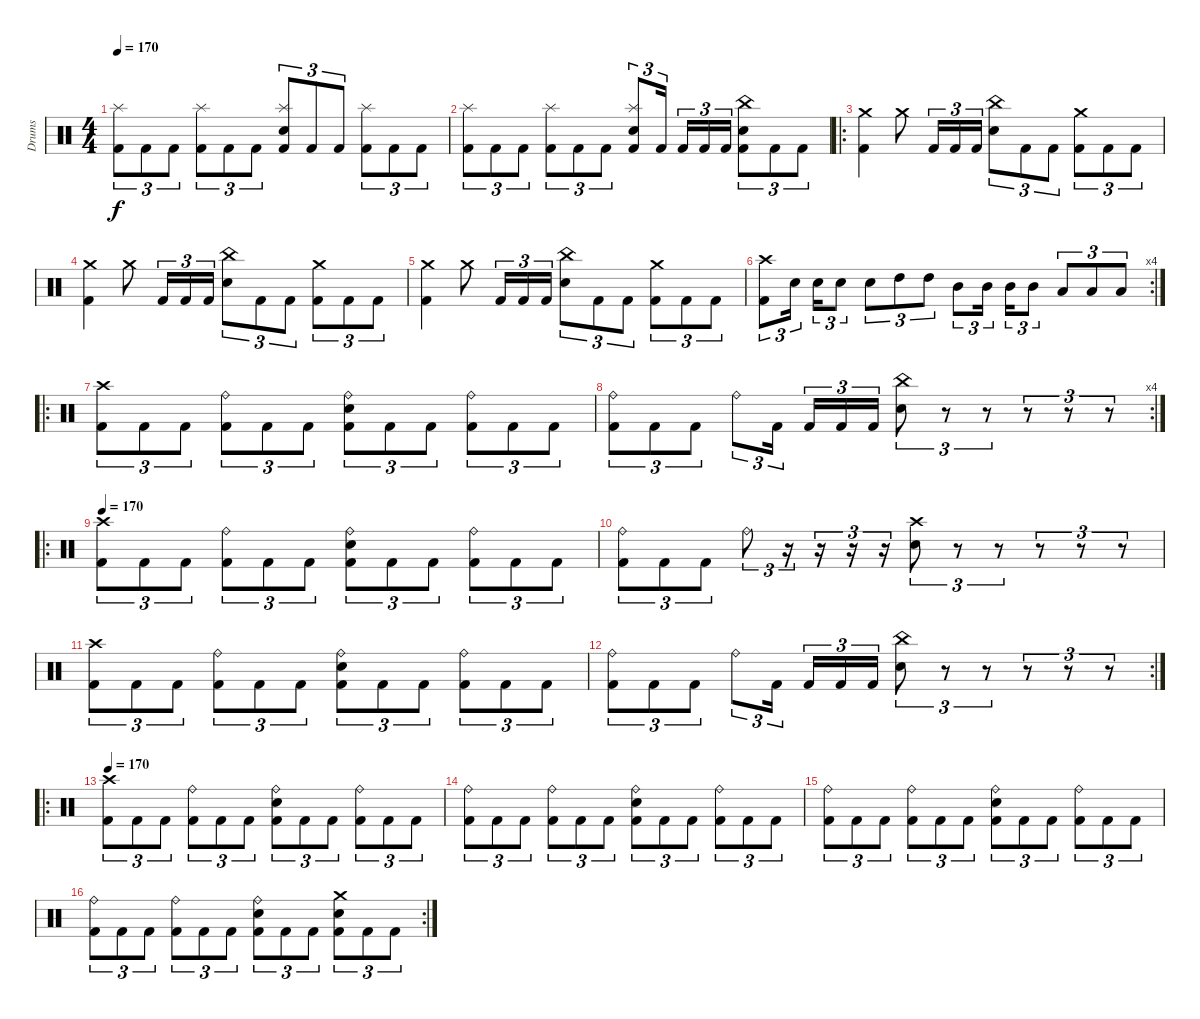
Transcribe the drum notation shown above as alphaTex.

\track ("Drums" "Drums") {instrument percussion}
\staff {score}
\articulation defaults
\ts (4 4)
\tempo 170
\clef neutral
\ks c
("Kick (hit) 2" "Splash (hit)").8{tu (3 2) dy f} "Kick (hit) 2".8{tu (3 2)} "Kick (hit) 2".8{tu (3 2)} ("Kick (hit) 2" "Splash (hit)").8{tu (3 2)} "Kick (hit) 2".8{tu (3 2)} "Kick (hit) 2".8{tu (3 2)} ("Kick (hit) 2" "Electric Snare (hit)" "Splash (hit)").8{tu (3 2)} "Kick (hit) 2".8{tu (3 2)} "Kick (hit) 2".8{tu (3 2)} ("Kick (hit) 2" "Splash (hit)").8{tu (3 2)} "Kick (hit) 2".8{tu (3 2)} "Kick (hit) 2".8{tu (3 2)} |
("Kick (hit) 2" "Splash (hit)").8{tu (3 2)} "Kick (hit) 2".8{tu (3 2)} "Kick (hit) 2".8{tu (3 2)} ("Kick (hit) 2" "Splash (hit)").8{tu (3 2)} "Kick (hit) 2".8{tu (3 2)} "Kick (hit) 2".8{tu (3 2)} ("Kick (hit) 2" "Electric Snare (hit)" "Splash (hit)").8{tu (3 2)} "Kick (hit) 2".16{tu (3 2)} "Kick (hit) 2".16{tu (3 2)} "Kick (hit) 2".16{tu (3 2)} "Kick (hit) 2".16{tu (3 2)} ("Kick (hit) 2" "Electric Snare (hit)" "China (hit)").8{tu (3 2)} "Kick (hit) 2".8{tu (3 2)} "Kick (hit) 2".8{tu (3 2)} |
\ro
("Kick (hit) 2" "Crash medium (hit)").4 "Crash medium (hit)".8 "Kick (hit) 2".16{tu (3 2)} "Kick (hit) 2".16{tu (3 2)} "Kick (hit) 2".16{tu (3 2)} ("Electric Snare (hit)" "China (hit)").8{tu (3 2)} "Kick (hit) 2".8{tu (3 2)} "Kick (hit) 2".8{tu (3 2)} ("Kick (hit) 2" "Crash medium (hit)").8{tu (3 2)} "Kick (hit) 2".8{tu (3 2)} "Kick (hit) 2".8{tu (3 2)} |
("Kick (hit) 2" "Crash medium (hit)").4 "Crash medium (hit)".8 "Kick (hit) 2".16{tu (3 2)} "Kick (hit) 2".16{tu (3 2)} "Kick (hit) 2".16{tu (3 2)} ("Electric Snare (hit)" "China (hit)").8{tu (3 2)} "Kick (hit) 2".8{tu (3 2)} "Kick (hit) 2".8{tu (3 2)} ("Kick (hit) 2" "Crash medium (hit)").8{tu (3 2)} "Kick (hit) 2".8{tu (3 2)} "Kick (hit) 2".8{tu (3 2)} |
("Kick (hit) 2" "Crash medium (hit)").4 "Crash medium (hit)".8 "Kick (hit) 2".16{tu (3 2)} "Kick (hit) 2".16{tu (3 2)} "Kick (hit) 2".16{tu (3 2)} ("Electric Snare (hit)" "China (hit)").8{tu (3 2)} "Kick (hit) 2".8{tu (3 2)} "Kick (hit) 2".8{tu (3 2)} ("Kick (hit) 2" "Crash medium (hit)").8{tu (3 2)} "Kick (hit) 2".8{tu (3 2)} "Kick (hit) 2".8{tu (3 2)} |
\rc 4
("Kick (hit) 2" "Crash high (hit)").8{tu (3 2)} "Electric Snare (hit)".16{tu (3 2)} "Electric Snare (hit)".16{tu (3 2)} "Electric Snare (hit)".8{tu (3 2)} "Electric Snare (hit)".8{tu (3 2)} "High Tom (hit)".8{tu (3 2)} "High Tom (hit)".8{tu (3 2)} "Mid Tom (hit)".8{tu (3 2)} "Mid Tom (hit)".16{tu (3 2)} "Mid Tom (hit)".16{tu (3 2)} "Mid Tom (hit)".8{tu (3 2)} "Low Tom (hit)".8{tu (3 2)} "Low Tom (hit)".8{tu (3 2)} "Low Tom (hit)".8{tu (3 2)} |
\ro
("Kick (hit) 2" "Crash high (hit)").8{tu (3 2)} "Kick (hit) 2".8{tu (3 2)} "Kick (hit) 2".8{tu (3 2)} ("Kick (hit) 2" "Ride (bell)").8{tu (3 2)} "Kick (hit) 2".8{tu (3 2)} "Kick (hit) 2".8{tu (3 2)} ("Kick (hit) 2" "Electric Snare (hit)" "Ride (bell)").8{tu (3 2)} "Kick (hit) 2".8{tu (3 2)} "Kick (hit) 2".8{tu (3 2)} ("Kick (hit) 2" "Ride (bell)").8{tu (3 2)} "Kick (hit) 2".8{tu (3 2)} "Kick (hit) 2".8{tu (3 2)} |
\rc 4
("Kick (hit) 2" "Ride (bell)").8{tu (3 2)} "Kick (hit) 2".8{tu (3 2)} "Kick (hit) 2".8{tu (3 2)} "Ride (bell)".8{tu (3 2)} "Kick (hit) 2".16{tu (3 2)} "Kick (hit) 2".16{tu (3 2)} "Kick (hit) 2".16{tu (3 2)} "Kick (hit) 2".16{tu (3 2)} ("Electric Snare (hit)" "China (hit)").8{tu (3 2)} r.8{tu (3 2)} r.8{tu (3 2)} r.8{tu (3 2)} r.8{tu (3 2)} r.8{tu (3 2)} |
\ro
\tempo 170
("Kick (hit) 2" "Crash high (hit)").8{tu (3 2)} "Kick (hit) 2".8{tu (3 2)} "Kick (hit) 2".8{tu (3 2)} ("Kick (hit) 2" "Ride (bell)").8{tu (3 2)} "Kick (hit) 2".8{tu (3 2)} "Kick (hit) 2".8{tu (3 2)} ("Kick (hit) 2" "Electric Snare (hit)" "Ride (bell)").8{tu (3 2)} "Kick (hit) 2".8{tu (3 2)} "Kick (hit) 2".8{tu (3 2)} ("Kick (hit) 2" "Ride (bell)").8{tu (3 2)} "Kick (hit) 2".8{tu (3 2)} "Kick (hit) 2".8{tu (3 2)} |
("Kick (hit) 2" "Ride (bell)").8{tu (3 2)} "Kick (hit) 2".8{tu (3 2)} "Kick (hit) 2".8{tu (3 2)} "Ride (bell)".8{tu (3 2)} r.16{tu (3 2)} r.16{tu (3 2)} r.16{tu (3 2)} r.16{tu (3 2)} ("Electric Snare (hit)" "Crash high (hit)").8{tu (3 2)} r.8{tu (3 2)} r.8{tu (3 2)} r.8{tu (3 2)} r.8{tu (3 2)} r.8{tu (3 2)} |
("Kick (hit) 2" "Crash high (hit)").8{tu (3 2)} "Kick (hit) 2".8{tu (3 2)} "Kick (hit) 2".8{tu (3 2)} ("Kick (hit) 2" "Ride (bell)").8{tu (3 2)} "Kick (hit) 2".8{tu (3 2)} "Kick (hit) 2".8{tu (3 2)} ("Kick (hit) 2" "Electric Snare (hit)" "Ride (bell)").8{tu (3 2)} "Kick (hit) 2".8{tu (3 2)} "Kick (hit) 2".8{tu (3 2)} ("Kick (hit) 2" "Ride (bell)").8{tu (3 2)} "Kick (hit) 2".8{tu (3 2)} "Kick (hit) 2".8{tu (3 2)} |
\rc 2
("Kick (hit) 2" "Ride (bell)").8{tu (3 2)} "Kick (hit) 2".8{tu (3 2)} "Kick (hit) 2".8{tu (3 2)} "Ride (bell)".8{tu (3 2)} "Kick (hit) 2".16{tu (3 2)} "Kick (hit) 2".16{tu (3 2)} "Kick (hit) 2".16{tu (3 2)} "Kick (hit) 2".16{tu (3 2)} ("Electric Snare (hit)" "China (hit)").8{tu (3 2)} r.8{tu (3 2)} r.8{tu (3 2)} r.8{tu (3 2)} r.8{tu (3 2)} r.8{tu (3 2)} |
\ro
\tempo 170
("Kick (hit) 2" "Crash high (hit)").8{tu (3 2)} "Kick (hit) 2".8{tu (3 2)} "Kick (hit) 2".8{tu (3 2)} ("Kick (hit) 2" "Ride (bell)").8{tu (3 2)} "Kick (hit) 2".8{tu (3 2)} "Kick (hit) 2".8{tu (3 2)} ("Kick (hit) 2" "Electric Snare (hit)" "Ride (bell)").8{tu (3 2)} "Kick (hit) 2".8{tu (3 2)} "Kick (hit) 2".8{tu (3 2)} ("Kick (hit) 2" "Ride (bell)").8{tu (3 2)} "Kick (hit) 2".8{tu (3 2)} "Kick (hit) 2".8{tu (3 2)} |
("Kick (hit) 2" "Ride (bell)").8{tu (3 2)} "Kick (hit) 2".8{tu (3 2)} "Kick (hit) 2".8{tu (3 2)} ("Kick (hit) 2" "Ride (bell)").8{tu (3 2)} "Kick (hit) 2".8{tu (3 2)} "Kick (hit) 2".8{tu (3 2)} ("Kick (hit) 2" "Electric Snare (hit)" "Ride (bell)").8{tu (3 2)} "Kick (hit) 2".8{tu (3 2)} "Kick (hit) 2".8{tu (3 2)} ("Kick (hit) 2" "Ride (bell)").8{tu (3 2)} "Kick (hit) 2".8{tu (3 2)} "Kick (hit) 2".8{tu (3 2)} |
("Kick (hit) 2" "Ride (bell)").8{tu (3 2)} "Kick (hit) 2".8{tu (3 2)} "Kick (hit) 2".8{tu (3 2)} ("Kick (hit) 2" "Ride (bell)").8{tu (3 2)} "Kick (hit) 2".8{tu (3 2)} "Kick (hit) 2".8{tu (3 2)} ("Kick (hit) 2" "Electric Snare (hit)" "Ride (bell)").8{tu (3 2)} "Kick (hit) 2".8{tu (3 2)} "Kick (hit) 2".8{tu (3 2)} ("Kick (hit) 2" "Ride (bell)").8{tu (3 2)} "Kick (hit) 2".8{tu (3 2)} "Kick (hit) 2".8{tu (3 2)} |
\rc 2
("Kick (hit) 2" "Ride (bell)").8{tu (3 2)} "Kick (hit) 2".8{tu (3 2)} "Kick (hit) 2".8{tu (3 2)} ("Kick (hit) 2" "Ride (bell)").8{tu (3 2)} "Kick (hit) 2".8{tu (3 2)} "Kick (hit) 2".8{tu (3 2)} ("Kick (hit) 2" "Electric Snare (hit)" "Ride (bell)").8{tu (3 2)} "Kick (hit) 2".8{tu (3 2)} "Kick (hit) 2".8{tu (3 2)} ("Kick (hit) 2" "Electric Snare (hit)" "Crash medium (hit)").8{tu (3 2)} "Kick (hit) 2".8{tu (3 2)} "Kick (hit) 2".8{tu (3 2)}
